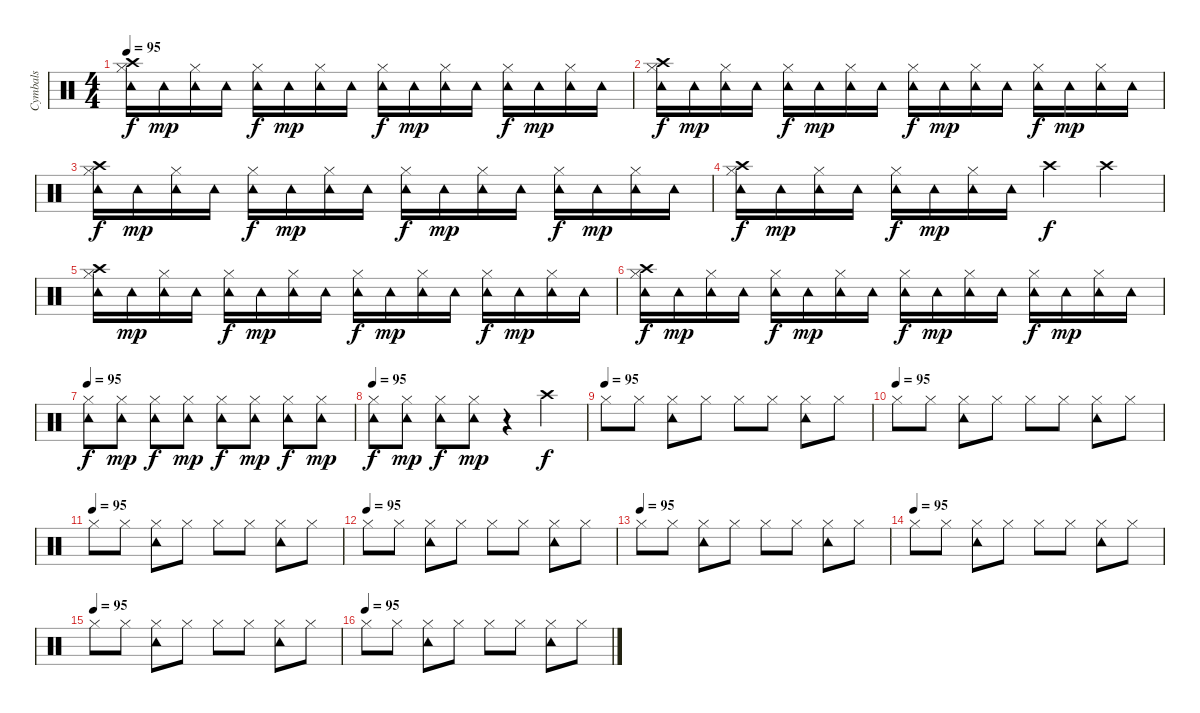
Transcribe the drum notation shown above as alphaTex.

\track ("Cymbals" "Cymbals") {instrument percussion}
\staff {score}
\articulation defaults
\ts (4 4)
\tempo 95
\clef neutral
\ks c
("Crash high (hit)" "Tambourine (hit)" "Hi-Hat (closed)").16{dy f} "Tambourine (hit)".16{dy mp} ("Tambourine (hit)" "Hi-Hat (closed)").16 "Tambourine (hit)".16 ("Tambourine (hit)" "Hi-Hat (closed)").16{dy f} "Tambourine (hit)".16{dy mp} ("Tambourine (hit)" "Hi-Hat (closed)").16 "Tambourine (hit)".16 ("Tambourine (hit)" "Hi-Hat (closed)").16{dy f} "Tambourine (hit)".16{dy mp} ("Tambourine (hit)" "Hi-Hat (closed)").16 "Tambourine (hit)".16 ("Tambourine (hit)" "Hi-Hat (closed)").16{dy f} "Tambourine (hit)".16{dy mp} ("Tambourine (hit)" "Hi-Hat (closed)").16 "Tambourine (hit)".16 |
("Crash high (hit)" "Tambourine (hit)" "Hi-Hat (closed)").16{dy f} "Tambourine (hit)".16{dy mp} ("Tambourine (hit)" "Hi-Hat (closed)").16 "Tambourine (hit)".16 ("Tambourine (hit)" "Hi-Hat (closed)").16{dy f} "Tambourine (hit)".16{dy mp} ("Tambourine (hit)" "Hi-Hat (closed)").16 "Tambourine (hit)".16 ("Tambourine (hit)" "Hi-Hat (closed)").16{dy f} "Tambourine (hit)".16{dy mp} ("Tambourine (hit)" "Hi-Hat (closed)").16 "Tambourine (hit)".16 ("Tambourine (hit)" "Hi-Hat (closed)").16{dy f} "Tambourine (hit)".16{dy mp} ("Tambourine (hit)" "Hi-Hat (closed)").16 "Tambourine (hit)".16 |
("Crash high (hit)" "Tambourine (hit)" "Hi-Hat (closed)").16{dy f} "Tambourine (hit)".16{dy mp} ("Tambourine (hit)" "Hi-Hat (closed)").16 "Tambourine (hit)".16 ("Tambourine (hit)" "Hi-Hat (closed)").16{dy f} "Tambourine (hit)".16{dy mp} ("Tambourine (hit)" "Hi-Hat (closed)").16 "Tambourine (hit)".16 ("Tambourine (hit)" "Hi-Hat (closed)").16{dy f} "Tambourine (hit)".16{dy mp} ("Tambourine (hit)" "Hi-Hat (closed)").16 "Tambourine (hit)".16 ("Tambourine (hit)" "Hi-Hat (closed)").16{dy f} "Tambourine (hit)".16{dy mp} ("Tambourine (hit)" "Hi-Hat (closed)").16 "Tambourine (hit)".16 |
("Crash high (hit)" "Tambourine (hit)" "Hi-Hat (closed)").16{dy f} "Tambourine (hit)".16{dy mp} ("Tambourine (hit)" "Hi-Hat (closed)").16 "Tambourine (hit)".16 ("Tambourine (hit)" "Hi-Hat (closed)").16{dy f} "Tambourine (hit)".16{dy mp} ("Tambourine (hit)" "Hi-Hat (closed)").16 "Tambourine (hit)".16 "Crash high (hit)".4{dy f} "Crash high (hit)".4 |
("Crash high (hit)" "Tambourine (hit)" "Hi-Hat (closed)").16 "Tambourine (hit)".16{dy mp} ("Tambourine (hit)" "Hi-Hat (closed)").16 "Tambourine (hit)".16 ("Tambourine (hit)" "Hi-Hat (closed)").16{dy f} "Tambourine (hit)".16{dy mp} ("Tambourine (hit)" "Hi-Hat (closed)").16 "Tambourine (hit)".16 ("Tambourine (hit)" "Hi-Hat (closed)").16{dy f} "Tambourine (hit)".16{dy mp} ("Tambourine (hit)" "Hi-Hat (closed)").16 "Tambourine (hit)".16 ("Tambourine (hit)" "Hi-Hat (closed)").16{dy f} "Tambourine (hit)".16{dy mp} ("Tambourine (hit)" "Hi-Hat (closed)").16 "Tambourine (hit)".16 |
("Crash high (hit)" "Tambourine (hit)" "Hi-Hat (closed)").16{dy f} "Tambourine (hit)".16{dy mp} ("Tambourine (hit)" "Hi-Hat (closed)").16 "Tambourine (hit)".16 ("Tambourine (hit)" "Hi-Hat (closed)").16{dy f} "Tambourine (hit)".16{dy mp} ("Tambourine (hit)" "Hi-Hat (closed)").16 "Tambourine (hit)".16 ("Tambourine (hit)" "Hi-Hat (closed)").16{dy f} "Tambourine (hit)".16{dy mp} ("Tambourine (hit)" "Hi-Hat (closed)").16 "Tambourine (hit)".16 ("Tambourine (hit)" "Hi-Hat (closed)").16{dy f} "Tambourine (hit)".16{dy mp} ("Tambourine (hit)" "Hi-Hat (closed)").16 "Tambourine (hit)".16 |
\tempo 95
("Tambourine (hit)" "Hi-Hat (closed)").8{dy f} ("Tambourine (hit)" "Hi-Hat (closed)").8{dy mp} ("Tambourine (hit)" "Hi-Hat (closed)").8{dy f} ("Tambourine (hit)" "Hi-Hat (closed)").8{dy mp} ("Tambourine (hit)" "Hi-Hat (closed)").8{dy f} ("Tambourine (hit)" "Hi-Hat (closed)").8{dy mp} ("Tambourine (hit)" "Hi-Hat (closed)").8{dy f} ("Tambourine (hit)" "Hi-Hat (closed)").8{dy mp} |
\tempo 95
("Tambourine (hit)" "Hi-Hat (closed)").8{dy f} ("Tambourine (hit)" "Hi-Hat (closed)").8{dy mp} ("Tambourine (hit)" "Hi-Hat (closed)").8{dy f} ("Tambourine (hit)" "Hi-Hat (closed)").8{dy mp} r.4 "Crash high (hit)".4{dy f} |
\tempo (95)
"Hi-Hat (closed)".8 "Hi-Hat (closed)".8 ("Tambourine (hit)" "Hi-Hat (closed)").8 "Hi-Hat (closed)".8 "Hi-Hat (closed)".8 "Hi-Hat (closed)".8 ("Tambourine (hit)" "Hi-Hat (closed)").8 "Hi-Hat (closed)".8 |
\tempo (95)
"Hi-Hat (closed)".8 "Hi-Hat (closed)".8 ("Tambourine (hit)" "Hi-Hat (closed)").8 "Hi-Hat (closed)".8 "Hi-Hat (closed)".8 "Hi-Hat (closed)".8 ("Tambourine (hit)" "Hi-Hat (closed)").8 "Hi-Hat (closed)".8 |
\tempo (95)
"Hi-Hat (closed)".8 "Hi-Hat (closed)".8 ("Tambourine (hit)" "Hi-Hat (closed)").8 "Hi-Hat (closed)".8 "Hi-Hat (closed)".8 "Hi-Hat (closed)".8 ("Tambourine (hit)" "Hi-Hat (closed)").8 "Hi-Hat (closed)".8 |
\tempo (95)
"Hi-Hat (closed)".8 "Hi-Hat (closed)".8 ("Tambourine (hit)" "Hi-Hat (closed)").8 "Hi-Hat (closed)".8 "Hi-Hat (closed)".8 "Hi-Hat (closed)".8 ("Tambourine (hit)" "Hi-Hat (closed)").8 "Hi-Hat (closed)".8 |
\tempo (95)
"Hi-Hat (closed)".8 "Hi-Hat (closed)".8 ("Tambourine (hit)" "Hi-Hat (closed)").8 "Hi-Hat (closed)".8 "Hi-Hat (closed)".8 "Hi-Hat (closed)".8 ("Tambourine (hit)" "Hi-Hat (closed)").8 "Hi-Hat (closed)".8 |
\tempo (95)
"Hi-Hat (closed)".8 "Hi-Hat (closed)".8 ("Tambourine (hit)" "Hi-Hat (closed)").8 "Hi-Hat (closed)".8 "Hi-Hat (closed)".8 "Hi-Hat (closed)".8 ("Tambourine (hit)" "Hi-Hat (closed)").8 "Hi-Hat (closed)".8 |
\tempo (95)
"Hi-Hat (closed)".8 "Hi-Hat (closed)".8 ("Tambourine (hit)" "Hi-Hat (closed)").8 "Hi-Hat (closed)".8 "Hi-Hat (closed)".8 "Hi-Hat (closed)".8 ("Tambourine (hit)" "Hi-Hat (closed)").8 "Hi-Hat (closed)".8 |
\tempo (95)
"Hi-Hat (closed)".8 "Hi-Hat (closed)".8 ("Tambourine (hit)" "Hi-Hat (closed)").8 "Hi-Hat (closed)".8 "Hi-Hat (closed)".8 "Hi-Hat (closed)".8 ("Tambourine (hit)" "Hi-Hat (closed)").8 "Hi-Hat (closed)".8
